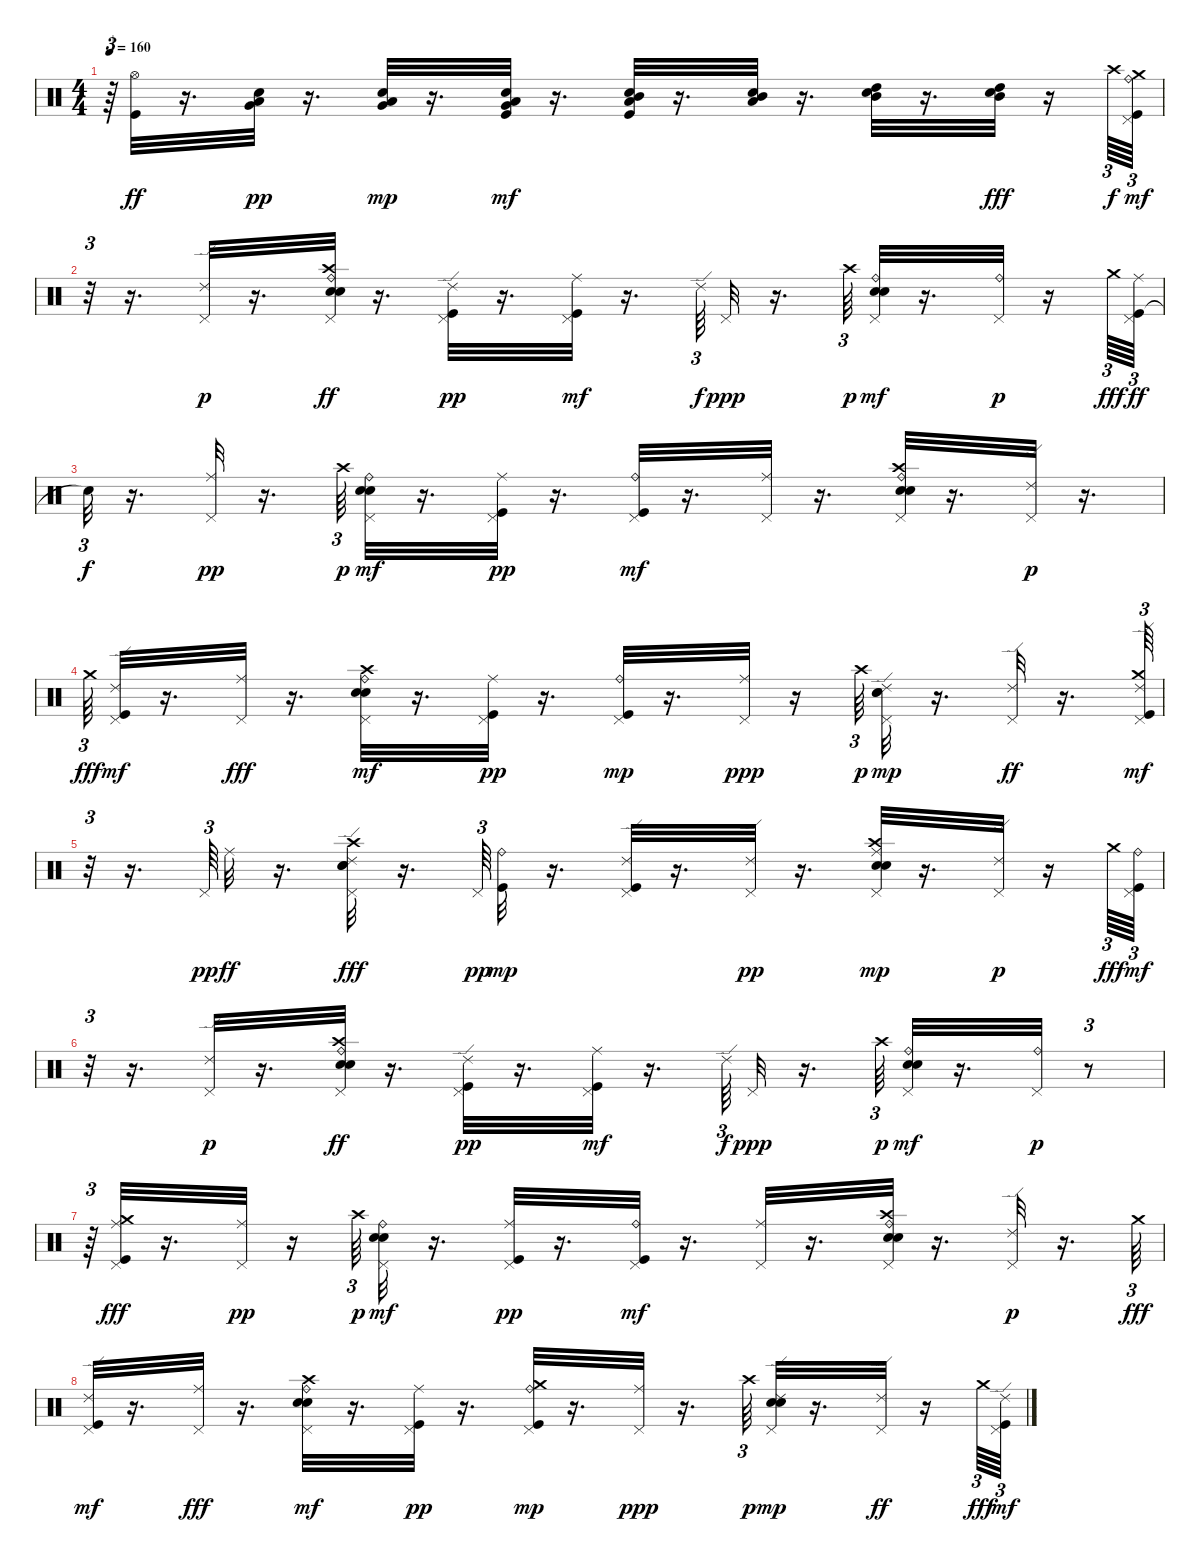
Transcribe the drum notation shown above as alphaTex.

\track "" {instrument percussion}
\staff {score}
\articulation defaults
\ts (4 4)
\tempo 160
\clef neutral
\ks c
r.64{tu (3 2) dy f} ("Kick (hit)" "Hi-Hat (open)").32{dy ff} r.16{d} ("Electric Snare (hit)" "Low Tom (hit)" "Very Low Tom (hit)").32{dy pp} r.16{d} ("Electric Snare (hit)" "Low Tom (hit)" "Very Low Tom (hit)").32{dy mp} r.16{d} ("Kick (hit)" "Electric Snare (hit)" "Low Tom (hit)" "Very Low Tom (hit)").32{dy mf} r.16{d} ("Kick (hit)" "Electric Snare (hit)" "Mid Tom (hit)" "Low Tom (hit)").32 r.16{d} ("Electric Snare (hit)" "Mid Tom (hit)" "Low Tom (hit)").32 r.16{d} ("Electric Snare (hit)" "High Tom (hit)" "Mid Tom (hit)").32 r.16{d} ("Electric Snare (hit)" "High Tom (hit)" "Mid Tom (hit)").32{dy fff} r.16 "Crash high (hit)".64{tu (3 2) dy f} ("Crash medium (hit)" "Kick (hit)" "Ride (bell)" "Pedal Hi-Hat (hit)").64{tu (3 2) dy mf} |
r.32{tu (3 2)} r.16{d} ("Ride (edge) 2" "Pedal Hi-Hat (hit)").32{dy p} r.16{d} ("Electric Snare (hit)" "Crash high (hit)" "Snare (hit) 2" "Ride (bell)" "Pedal Hi-Hat (hit)").32{dy ff} r.16{d} ("Kick (hit)" "Ride (edge) 2" "Pedal Hi-Hat (hit)").32{dy pp} r.16{d} ("Kick (hit)" "Ride (middle)" "Pedal Hi-Hat (hit)").32{dy mf} r.16{d} "Ride (edge) 2".64{tu (3 2) dy f} "Pedal Hi-Hat (hit)".32{dy ppp} r.16{d} "Crash high (hit)".64{tu (3 2) dy p} ("Electric Snare (hit)" "Snare (hit) 2" "Ride (bell)" "Pedal Hi-Hat (hit)").32{dy mf} r.16{d} ("Ride (bell)" "Pedal Hi-Hat (hit)").32{dy p} r.16 "Crash medium (hit)".64{tu (3 2) dy fff} ("Kick (hit)" "Ride (middle)" "Pedal Hi-Hat (hit)").64{tu (3 2) dy ff} |
"Snare (hit)"{t}.32{tu (3 2) dy f} r.16{d} ("Ride (middle)" "Pedal Hi-Hat (hit)").32{dy pp} r.16{d} "Crash high (hit)".64{tu (3 2) dy p} ("Electric Snare (hit)" "Snare (hit) 2" "Ride (bell)" "Pedal Hi-Hat (hit)").32{dy mf} r.16{d} ("Kick (hit)" "Ride (middle)" "Pedal Hi-Hat (hit)").32{dy pp} r.16{d} ("Kick (hit)" "Ride (bell)" "Pedal Hi-Hat (hit)").32{dy mf} r.16{d} ("Pedal Hi-Hat (hit)" "Ride (middle)").32 r.16{d} ("Electric Snare (hit)" "Crash high (hit)" "Snare (hit) 2" "Ride (bell)" "Pedal Hi-Hat (hit)").32 r.16{d} ("Ride (edge) 2" "Pedal Hi-Hat (hit)").32{dy p} r.16{d} |
"Crash medium (hit)".64{tu (3 2) dy fff} ("Kick (hit)" "Ride (edge) 2" "Pedal Hi-Hat (hit)").32{dy mf} r.16{d} ("Pedal Hi-Hat (hit)" "Ride (middle)").32{dy fff} r.16{d} ("Electric Snare (hit)" "Crash high (hit)" "Snare (hit) 2" "Ride (bell)" "Pedal Hi-Hat (hit)").32{dy mf} r.16{d} ("Kick (hit)" "Ride (middle)" "Pedal Hi-Hat (hit)").32{dy pp} r.16{d} ("Kick (hit)" "Ride (bell)" "Pedal Hi-Hat (hit)").32{dy mp} r.16{d} ("Ride (middle)" "Pedal Hi-Hat (hit)").32{dy ppp} r.16 "Crash high (hit)".64{tu (3 2) dy p} ("Electric Snare (hit)" "Snare (hit) 2" "Ride (edge) 2" "Pedal Hi-Hat (hit)").32{dy mp} r.16{d} ("Pedal Hi-Hat (hit)" "Ride (edge) 2").32{dy ff} r.16{d} ("Crash medium (hit)" "Kick (hit)" "Ride (edge) 2" "Pedal Hi-Hat (hit)").64{tu (3 2) dy mf} |
r.32{tu (3 2)} r.16{d} "Pedal Hi-Hat (hit)".64{tu (3 2) dy pp} "Ride (middle)".32{dy ff} r.16{d} ("Pedal Hi-Hat (hit)" "Electric Snare (hit)" "Crash high (hit)" "Snare (hit) 2" "Ride (edge) 2").32{dy fff} r.16{d} "Pedal Hi-Hat (hit)".64{tu (3 2) dy pp} ("Kick (hit)" "Ride (bell)").32{dy mp} r.16{d} ("Kick (hit)" "Ride (edge) 2" "Pedal Hi-Hat (hit)").32 r.16{d} ("Ride (edge) 2" "Pedal Hi-Hat (hit)").32{dy pp} r.16{d} ("Electric Snare (hit)" "Snare (hit) 2" "Ride (middle)" "Pedal Hi-Hat (hit)" "Crash high (hit)").32{dy mp} r.16{d} ("Ride (edge) 2" "Pedal Hi-Hat (hit)").32{dy p} r.16 "Crash medium (hit)".64{tu (3 2) dy fff} ("Kick (hit)" "Ride (bell)" "Pedal Hi-Hat (hit)").64{tu (3 2) dy mf} |
r.32{tu (3 2)} r.16{d} ("Ride (edge) 2" "Pedal Hi-Hat (hit)").32{dy p} r.16{d} ("Electric Snare (hit)" "Crash high (hit)" "Snare (hit) 2" "Ride (bell)" "Pedal Hi-Hat (hit)").32{dy ff} r.16{d} ("Kick (hit)" "Ride (edge) 2" "Pedal Hi-Hat (hit)").32{dy pp} r.16{d} ("Kick (hit)" "Ride (middle)" "Pedal Hi-Hat (hit)").32{dy mf} r.16{d} "Ride (edge) 2".64{tu (3 2) dy f} "Pedal Hi-Hat (hit)".32{dy ppp} r.16{d} "Crash high (hit)".64{tu (3 2) dy p} ("Electric Snare (hit)" "Snare (hit) 2" "Ride (bell)" "Pedal Hi-Hat (hit)").32{dy mf} r.16{d} ("Ride (bell)" "Pedal Hi-Hat (hit)").32{dy p} r.8{tu (3 2)} |
r.64{tu (3 2)} ("Kick (hit)" "Ride (middle)" "Pedal Hi-Hat (hit)" "Crash medium (hit)").32{dy fff} r.16{d} ("Ride (middle)" "Pedal Hi-Hat (hit)").32{dy pp} r.16 "Crash high (hit)".64{tu (3 2) dy p} ("Electric Snare (hit)" "Snare (hit) 2" "Ride (bell)" "Pedal Hi-Hat (hit)").32{dy mf} r.16{d} ("Kick (hit)" "Ride (middle)" "Pedal Hi-Hat (hit)").32{dy pp} r.16{d} ("Kick (hit)" "Ride (bell)" "Pedal Hi-Hat (hit)").32{dy mf} r.16{d} ("Pedal Hi-Hat (hit)" "Ride (middle)").32 r.16{d} ("Electric Snare (hit)" "Crash high (hit)" "Snare (hit) 2" "Ride (bell)" "Pedal Hi-Hat (hit)").32 r.16{d} ("Ride (edge) 2" "Pedal Hi-Hat (hit)").32{dy p} r.16{d} "Crash medium (hit)".64{tu (3 2) dy fff} |
("Kick (hit)" "Ride (edge) 2" "Pedal Hi-Hat (hit)").32{dy mf} r.16{d} ("Pedal Hi-Hat (hit)" "Ride (middle)").32{dy fff} r.16{d} ("Electric Snare (hit)" "Crash high (hit)" "Snare (hit) 2" "Ride (bell)" "Pedal Hi-Hat (hit)").32{dy mf} r.16{d} ("Kick (hit)" "Ride (middle)" "Pedal Hi-Hat (hit)").32{dy pp} r.16{d} ("Crash medium (hit)" "Kick (hit)" "Ride (bell)" "Pedal Hi-Hat (hit)").32{dy mp} r.16{d} ("Ride (middle)" "Pedal Hi-Hat (hit)").32{dy ppp} r.16{d} "Crash high (hit)".64{tu (3 2) dy p} ("Electric Snare (hit)" "Snare (hit) 2" "Ride (edge) 2" "Pedal Hi-Hat (hit)").32{dy mp} r.16{d} ("Pedal Hi-Hat (hit)" "Ride (edge) 2").32{dy ff} r.16 "Crash medium (hit)".64{tu (3 2) dy fff} ("Kick (hit)" "Ride (edge) 2" "Pedal Hi-Hat (hit)").64{tu (3 2) dy mf}
